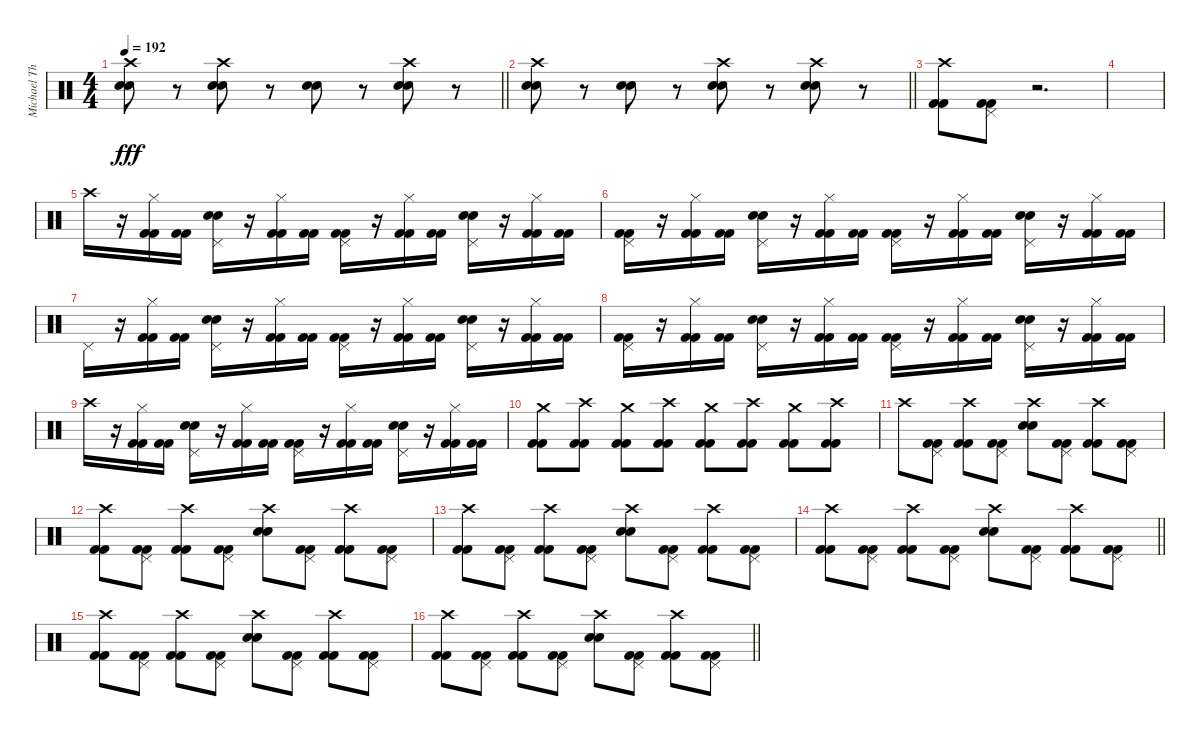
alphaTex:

\track ("Michael Thomas" "Michael Th") {instrument percussion}
\staff {score}
\articulation defaults
\ts (4 4)
\tempo 192
\clef neutral
\barLineRight lightlight
\ks c
("Crash high (hit)" "Snare (hit) 2" "Electric Snare (hit)").8{dy fff} r.8 ("Crash high (hit)" "Snare (hit) 2" "Electric Snare (hit)").8 r.8 ("Snare (hit) 2" "Electric Snare (hit)").8 r.8 ("Crash high (hit)" "Snare (hit) 2" "Electric Snare (hit)").8 r.8 |
\barLineRight lightlight
("Crash high (hit)" "Snare (hit) 2" "Electric Snare (hit)").8 r.8 ("Snare (hit) 2" "Electric Snare (hit)").8 r.8 ("Crash high (hit)" "Snare (hit) 2" "Electric Snare (hit)").8 r.8 ("Crash high (hit)" "Snare (hit) 2" "Electric Snare (hit)").8 r.8 |
("Crash high (hit)" "Kick (hit) 2" "Kick (hit) 2").8 ("Pedal Hi-Hat (hit)" "Kick (hit) 2" "Kick (hit) 2").8 r.2{d} |
|
"Crash high (hit)".16 r.16 ("Hi-Hat (closed)" "Kick (hit) 2" "Kick (hit) 2").16 ("Kick (hit) 2" "Kick (hit) 2").16 ("Pedal Hi-Hat (hit)" "Snare (hit) 2" "Electric Snare (hit)").16 r.16 ("Hi-Hat (closed)" "Kick (hit) 2" "Kick (hit) 2").16 ("Kick (hit) 2" "Kick (hit) 2").16 ("Pedal Hi-Hat (hit)" "Kick (hit) 2" "Kick (hit) 2").16 r.16 ("Hi-Hat (closed)" "Kick (hit) 2" "Kick (hit) 2").16 ("Kick (hit) 2" "Kick (hit) 2").16 ("Pedal Hi-Hat (hit)" "Snare (hit) 2" "Electric Snare (hit)").16 r.16 ("Hi-Hat (closed)" "Kick (hit) 2" "Kick (hit) 2").16 ("Kick (hit) 2" "Kick (hit) 2").16 |
("Pedal Hi-Hat (hit)" "Kick (hit) 2" "Kick (hit) 2").16 r.16 ("Hi-Hat (closed)" "Kick (hit) 2" "Kick (hit) 2").16 ("Kick (hit) 2" "Kick (hit) 2").16 ("Pedal Hi-Hat (hit)" "Snare (hit) 2" "Electric Snare (hit)").16 r.16 ("Hi-Hat (closed)" "Kick (hit) 2" "Kick (hit) 2").16 ("Kick (hit) 2" "Kick (hit) 2").16 ("Pedal Hi-Hat (hit)" "Kick (hit) 2" "Kick (hit) 2").16 r.16 ("Hi-Hat (closed)" "Kick (hit) 2" "Kick (hit) 2").16 ("Kick (hit) 2" "Kick (hit) 2").16 ("Pedal Hi-Hat (hit)" "Snare (hit) 2" "Electric Snare (hit)").16 r.16 ("Hi-Hat (closed)" "Kick (hit) 2" "Kick (hit) 2").16 ("Kick (hit) 2" "Kick (hit) 2").16 |
"Pedal Hi-Hat (hit)".16 r.16 ("Hi-Hat (closed)" "Kick (hit) 2" "Kick (hit) 2").16 ("Kick (hit) 2" "Kick (hit) 2").16 ("Pedal Hi-Hat (hit)" "Snare (hit) 2" "Electric Snare (hit)").16 r.16 ("Hi-Hat (closed)" "Kick (hit) 2" "Kick (hit) 2").16 ("Kick (hit) 2" "Kick (hit) 2").16 ("Pedal Hi-Hat (hit)" "Kick (hit) 2" "Kick (hit) 2").16 r.16 ("Hi-Hat (closed)" "Kick (hit) 2" "Kick (hit) 2").16 ("Kick (hit) 2" "Kick (hit) 2").16 ("Pedal Hi-Hat (hit)" "Snare (hit) 2" "Electric Snare (hit)").16 r.16 ("Hi-Hat (closed)" "Kick (hit) 2" "Kick (hit) 2").16 ("Kick (hit) 2" "Kick (hit) 2").16 |
("Pedal Hi-Hat (hit)" "Kick (hit) 2" "Kick (hit) 2").16 r.16 ("Hi-Hat (closed)" "Kick (hit) 2" "Kick (hit) 2").16 ("Kick (hit) 2" "Kick (hit) 2").16 ("Pedal Hi-Hat (hit)" "Snare (hit) 2" "Electric Snare (hit)").16 r.16 ("Hi-Hat (closed)" "Kick (hit) 2" "Kick (hit) 2").16 ("Kick (hit) 2" "Kick (hit) 2").16 ("Pedal Hi-Hat (hit)" "Kick (hit) 2" "Kick (hit) 2").16 r.16 ("Hi-Hat (closed)" "Kick (hit) 2" "Kick (hit) 2").16 ("Kick (hit) 2" "Kick (hit) 2").16 ("Pedal Hi-Hat (hit)" "Snare (hit) 2" "Electric Snare (hit)").16 r.16 ("Hi-Hat (closed)" "Kick (hit) 2" "Kick (hit) 2").16 ("Kick (hit) 2" "Kick (hit) 2").16 |
"Crash high (hit)".16 r.16 ("Hi-Hat (closed)" "Kick (hit) 2" "Kick (hit) 2").16 ("Kick (hit) 2" "Kick (hit) 2").16 ("Pedal Hi-Hat (hit)" "Snare (hit) 2" "Electric Snare (hit)").16 r.16 ("Hi-Hat (closed)" "Kick (hit) 2" "Kick (hit) 2").16 ("Kick (hit) 2" "Kick (hit) 2").16 ("Pedal Hi-Hat (hit)" "Kick (hit) 2" "Kick (hit) 2").16 r.16 ("Hi-Hat (closed)" "Kick (hit) 2" "Kick (hit) 2").16 ("Kick (hit) 2" "Kick (hit) 2").16 ("Pedal Hi-Hat (hit)" "Snare (hit) 2" "Electric Snare (hit)").16 r.16 ("Hi-Hat (closed)" "Kick (hit) 2" "Kick (hit) 2").16 ("Kick (hit) 2" "Kick (hit) 2").16 |
("Crash medium (hit)" "Kick (hit) 2" "Kick (hit) 2").8 ("Crash high (hit)" "Kick (hit) 2" "Kick (hit) 2").8 ("Crash medium (hit)" "Kick (hit) 2" "Kick (hit) 2").8 ("Crash high (hit)" "Kick (hit) 2" "Kick (hit) 2").8 ("Crash medium (hit)" "Kick (hit) 2" "Kick (hit) 2").8 ("Crash high (hit)" "Kick (hit) 2" "Kick (hit) 2").8 ("Crash medium (hit)" "Kick (hit) 2" "Kick (hit) 2").8 ("Crash high (hit)" "Kick (hit) 2" "Kick (hit) 2").8 |
"Crash high (hit)".8 ("Pedal Hi-Hat (hit)" "Kick (hit) 2" "Kick (hit) 2").8 ("Crash high (hit)" "Kick (hit) 2" "Kick (hit) 2").8 ("Pedal Hi-Hat (hit)" "Kick (hit) 2" "Kick (hit) 2").8 ("Crash high (hit)" "Snare (hit) 2" "Electric Snare (hit)").8 ("Pedal Hi-Hat (hit)" "Kick (hit) 2" "Kick (hit) 2").8 ("Crash high (hit)" "Kick (hit) 2" "Kick (hit) 2").8 ("Pedal Hi-Hat (hit)" "Kick (hit) 2" "Kick (hit) 2").8 |
("Crash high (hit)" "Kick (hit) 2" "Kick (hit) 2").8 ("Pedal Hi-Hat (hit)" "Kick (hit) 2" "Kick (hit) 2").8 ("Crash high (hit)" "Kick (hit) 2" "Kick (hit) 2").8 ("Pedal Hi-Hat (hit)" "Kick (hit) 2" "Kick (hit) 2").8 ("Crash high (hit)" "Snare (hit) 2" "Electric Snare (hit)").8 ("Pedal Hi-Hat (hit)" "Kick (hit) 2" "Kick (hit) 2").8 ("Crash high (hit)" "Kick (hit) 2" "Kick (hit) 2").8 ("Pedal Hi-Hat (hit)" "Kick (hit) 2" "Kick (hit) 2").8 |
("Crash high (hit)" "Kick (hit) 2" "Kick (hit) 2").8 ("Pedal Hi-Hat (hit)" "Kick (hit) 2" "Kick (hit) 2").8 ("Crash high (hit)" "Kick (hit) 2" "Kick (hit) 2").8 ("Pedal Hi-Hat (hit)" "Kick (hit) 2" "Kick (hit) 2").8 ("Crash high (hit)" "Snare (hit) 2" "Electric Snare (hit)").8 ("Pedal Hi-Hat (hit)" "Kick (hit) 2" "Kick (hit) 2").8 ("Crash high (hit)" "Kick (hit) 2" "Kick (hit) 2").8 ("Pedal Hi-Hat (hit)" "Kick (hit) 2" "Kick (hit) 2").8 |
\barLineRight lightlight
("Crash high (hit)" "Kick (hit) 2" "Kick (hit) 2").8 ("Pedal Hi-Hat (hit)" "Kick (hit) 2" "Kick (hit) 2").8 ("Crash high (hit)" "Kick (hit) 2" "Kick (hit) 2").8 ("Pedal Hi-Hat (hit)" "Kick (hit) 2" "Kick (hit) 2").8 ("Crash high (hit)" "Snare (hit) 2" "Electric Snare (hit)").8 ("Pedal Hi-Hat (hit)" "Kick (hit) 2" "Kick (hit) 2").8 ("Crash high (hit)" "Kick (hit) 2" "Kick (hit) 2").8 ("Pedal Hi-Hat (hit)" "Kick (hit) 2" "Kick (hit) 2").8 |
("Crash high (hit)" "Kick (hit) 2" "Kick (hit) 2").8 ("Pedal Hi-Hat (hit)" "Kick (hit) 2" "Kick (hit) 2").8 ("Crash high (hit)" "Kick (hit) 2" "Kick (hit) 2").8 ("Pedal Hi-Hat (hit)" "Kick (hit) 2" "Kick (hit) 2").8 ("Crash high (hit)" "Snare (hit) 2" "Electric Snare (hit)").8 ("Pedal Hi-Hat (hit)" "Kick (hit) 2" "Kick (hit) 2").8 ("Crash high (hit)" "Kick (hit) 2" "Kick (hit) 2").8 ("Pedal Hi-Hat (hit)" "Kick (hit) 2" "Kick (hit) 2").8 |
\barLineRight lightlight
("Crash high (hit)" "Kick (hit) 2" "Kick (hit) 2").8 ("Pedal Hi-Hat (hit)" "Kick (hit) 2" "Kick (hit) 2").8 ("Crash high (hit)" "Kick (hit) 2" "Kick (hit) 2").8 ("Pedal Hi-Hat (hit)" "Kick (hit) 2" "Kick (hit) 2").8 ("Crash high (hit)" "Snare (hit) 2" "Electric Snare (hit)").8 ("Pedal Hi-Hat (hit)" "Kick (hit) 2" "Kick (hit) 2").8 ("Crash high (hit)" "Kick (hit) 2" "Kick (hit) 2").8 ("Pedal Hi-Hat (hit)" "Kick (hit) 2" "Kick (hit) 2").8
